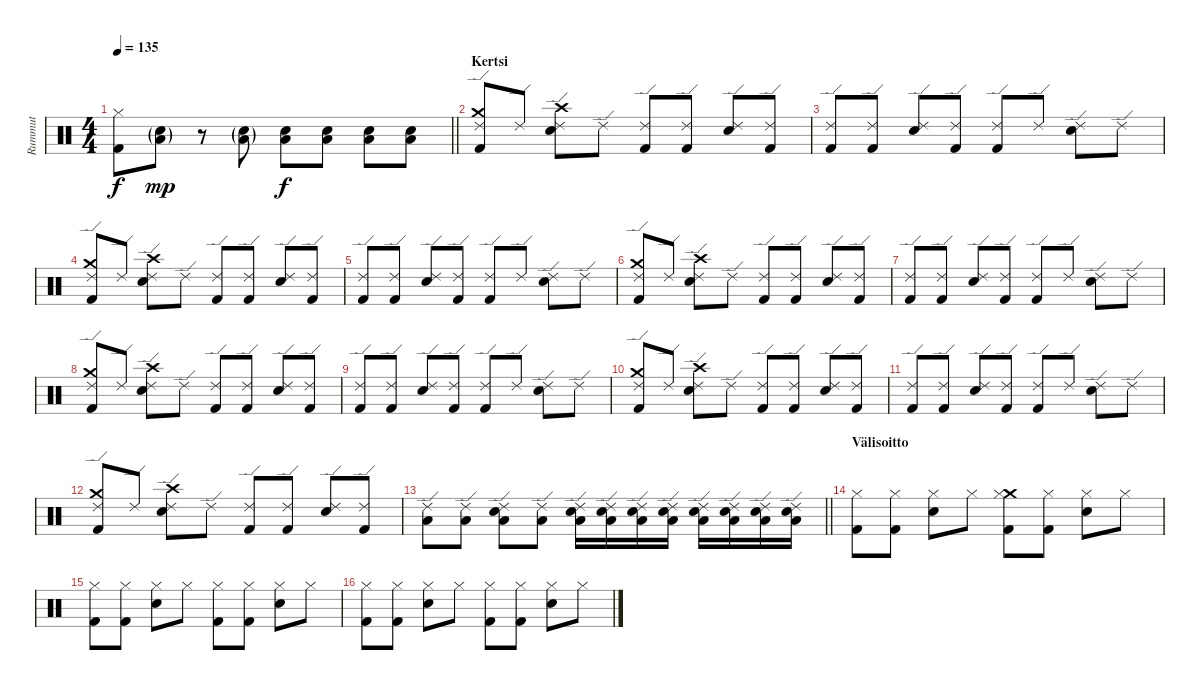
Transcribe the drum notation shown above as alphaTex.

\track ("Rummut" "Rummut") {instrument percussion}
\staff {score}
\articulation defaults
\ts (4 4)
\tempo 135
\clef neutral
\barLineRight lightlight
\ks c
("Hi-Hat (closed)" "Kick (hit) 2").8{dy f} ("Snare (hit) 2"{g} "Low Tom (hit)"{g}).8{dy mp} r.8 ("Snare (hit) 2"{g} "Low Tom (hit)"{g}).8 ("Snare (hit) 2" "Low Tom (hit)").8{dy f} ("Snare (hit) 2" "Low Tom (hit)").8 ("Snare (hit) 2" "Low Tom (hit)").8 ("Snare (hit) 2" "Low Tom (hit)").8 |
\section ("" "Kertsi")
("Crash medium (hit)" "Ride (edge) 2" "Kick (hit) 2").8 "Ride (edge) 2".8 ("Crash high (hit)" "Ride (edge) 2" "Snare (hit) 2").8 "Ride (edge) 2".8 ("Ride (edge) 2" "Kick (hit) 2").8 ("Ride (edge) 2" "Kick (hit) 2").8 ("Ride (edge) 2" "Snare (hit) 2").8 ("Ride (edge) 2" "Kick (hit) 2").8 |
("Ride (edge) 2" "Kick (hit) 2").8 ("Ride (edge) 2" "Kick (hit) 2").8 ("Ride (edge) 2" "Snare (hit) 2").8 ("Ride (edge) 2" "Kick (hit) 2").8 ("Ride (edge) 2" "Kick (hit) 2").8 "Ride (edge) 2".8 ("Ride (edge) 2" "Snare (hit) 2").8 "Ride (edge) 2".8 |
("Crash medium (hit)" "Ride (edge) 2" "Kick (hit) 2").8 "Ride (edge) 2".8 ("Crash high (hit)" "Ride (edge) 2" "Snare (hit) 2").8 "Ride (edge) 2".8 ("Ride (edge) 2" "Kick (hit) 2").8 ("Ride (edge) 2" "Kick (hit) 2").8 ("Ride (edge) 2" "Snare (hit) 2").8 ("Ride (edge) 2" "Kick (hit) 2").8 |
("Ride (edge) 2" "Kick (hit) 2").8 ("Ride (edge) 2" "Kick (hit) 2").8 ("Ride (edge) 2" "Snare (hit) 2").8 ("Ride (edge) 2" "Kick (hit) 2").8 ("Ride (edge) 2" "Kick (hit) 2").8 "Ride (edge) 2".8 ("Ride (edge) 2" "Snare (hit) 2").8 "Ride (edge) 2".8 |
("Crash medium (hit)" "Ride (edge) 2" "Kick (hit) 2").8 "Ride (edge) 2".8 ("Crash high (hit)" "Ride (edge) 2" "Snare (hit) 2").8 "Ride (edge) 2".8 ("Ride (edge) 2" "Kick (hit) 2").8 ("Ride (edge) 2" "Kick (hit) 2").8 ("Ride (edge) 2" "Snare (hit) 2").8 ("Ride (edge) 2" "Kick (hit) 2").8 |
("Ride (edge) 2" "Kick (hit) 2").8 ("Ride (edge) 2" "Kick (hit) 2").8 ("Ride (edge) 2" "Snare (hit) 2").8 ("Ride (edge) 2" "Kick (hit) 2").8 ("Ride (edge) 2" "Kick (hit) 2").8 "Ride (edge) 2".8 ("Ride (edge) 2" "Snare (hit) 2").8 "Ride (edge) 2".8 |
("Crash medium (hit)" "Ride (edge) 2" "Kick (hit) 2").8 "Ride (edge) 2".8 ("Crash high (hit)" "Ride (edge) 2" "Snare (hit) 2").8 "Ride (edge) 2".8 ("Ride (edge) 2" "Kick (hit) 2").8 ("Ride (edge) 2" "Kick (hit) 2").8 ("Ride (edge) 2" "Snare (hit) 2").8 ("Ride (edge) 2" "Kick (hit) 2").8 |
("Ride (edge) 2" "Kick (hit) 2").8 ("Ride (edge) 2" "Kick (hit) 2").8 ("Ride (edge) 2" "Snare (hit) 2").8 ("Ride (edge) 2" "Kick (hit) 2").8 ("Ride (edge) 2" "Kick (hit) 2").8 "Ride (edge) 2".8 ("Ride (edge) 2" "Snare (hit) 2").8 "Ride (edge) 2".8 |
("Crash medium (hit)" "Ride (edge) 2" "Kick (hit) 2").8 "Ride (edge) 2".8 ("Crash high (hit)" "Ride (edge) 2" "Snare (hit) 2").8 "Ride (edge) 2".8 ("Ride (edge) 2" "Kick (hit) 2").8 ("Ride (edge) 2" "Kick (hit) 2").8 ("Ride (edge) 2" "Snare (hit) 2").8 ("Ride (edge) 2" "Kick (hit) 2").8 |
("Ride (edge) 2" "Kick (hit) 2").8 ("Ride (edge) 2" "Kick (hit) 2").8 ("Ride (edge) 2" "Snare (hit) 2").8 ("Ride (edge) 2" "Kick (hit) 2").8 ("Ride (edge) 2" "Kick (hit) 2").8 "Ride (edge) 2".8 ("Ride (edge) 2" "Snare (hit) 2").8 "Ride (edge) 2".8 |
("Crash medium (hit)" "Ride (edge) 2" "Kick (hit) 2").8 "Ride (edge) 2".8 ("Crash high (hit)" "Ride (edge) 2" "Snare (hit) 2").8 "Ride (edge) 2".8 ("Ride (edge) 2" "Kick (hit) 2").8 ("Ride (edge) 2" "Kick (hit) 2").8 ("Ride (edge) 2" "Snare (hit) 2").8 ("Ride (edge) 2" "Kick (hit) 2").8 |
\barLineRight lightlight
("Ride (edge) 2" "Low Tom (hit)").8 ("Ride (edge) 2" "Low Tom (hit)").8 ("Ride (edge) 2" "Low Tom (hit)" "Snare (hit) 2").8 ("Ride (edge) 2" "Low Tom (hit)").8 ("Ride (edge) 2" "Low Tom (hit)" "Snare (hit) 2").16 ("Ride (edge) 2" "Low Tom (hit)" "Snare (hit) 2").16 ("Ride (edge) 2" "Low Tom (hit)" "Snare (hit) 2").16 ("Ride (edge) 2" "Low Tom (hit)" "Snare (hit) 2").16 ("Ride (edge) 2" "Snare (hit) 2" "Low Tom (hit)").16 ("Ride (edge) 2" "Snare (hit) 2" "Low Tom (hit)").16 ("Ride (edge) 2" "Snare (hit) 2" "Low Tom (hit)").16 ("Ride (edge) 2" "Snare (hit) 2" "Low Tom (hit)").16 |
\section ("" "Välisoitto")
("Hi-Hat (closed)" "Kick (hit) 2").8 ("Hi-Hat (closed)" "Kick (hit) 2").8 ("Hi-Hat (closed)" "Snare (hit) 2").8 "Hi-Hat (closed)".8 ("Crash medium (hit)" "Hi-Hat (closed)" "Kick (hit) 2").8 ("Hi-Hat (closed)" "Kick (hit) 2").8 ("Hi-Hat (closed)" "Snare (hit) 2").8 "Hi-Hat (closed)".8 |
("Hi-Hat (closed)" "Kick (hit) 2").8 ("Hi-Hat (closed)" "Kick (hit) 2").8 ("Hi-Hat (closed)" "Snare (hit) 2").8 "Hi-Hat (closed)".8 ("Hi-Hat (closed)" "Kick (hit) 2").8 ("Hi-Hat (closed)" "Kick (hit) 2").8 ("Hi-Hat (closed)" "Snare (hit) 2").8 "Hi-Hat (closed)".8 |
("Hi-Hat (closed)" "Kick (hit) 2").8 ("Hi-Hat (closed)" "Kick (hit) 2").8 ("Hi-Hat (closed)" "Snare (hit) 2").8 "Hi-Hat (closed)".8 ("Hi-Hat (closed)" "Kick (hit) 2").8 ("Hi-Hat (closed)" "Kick (hit) 2").8 ("Hi-Hat (closed)" "Snare (hit) 2").8 "Hi-Hat (closed)".8
